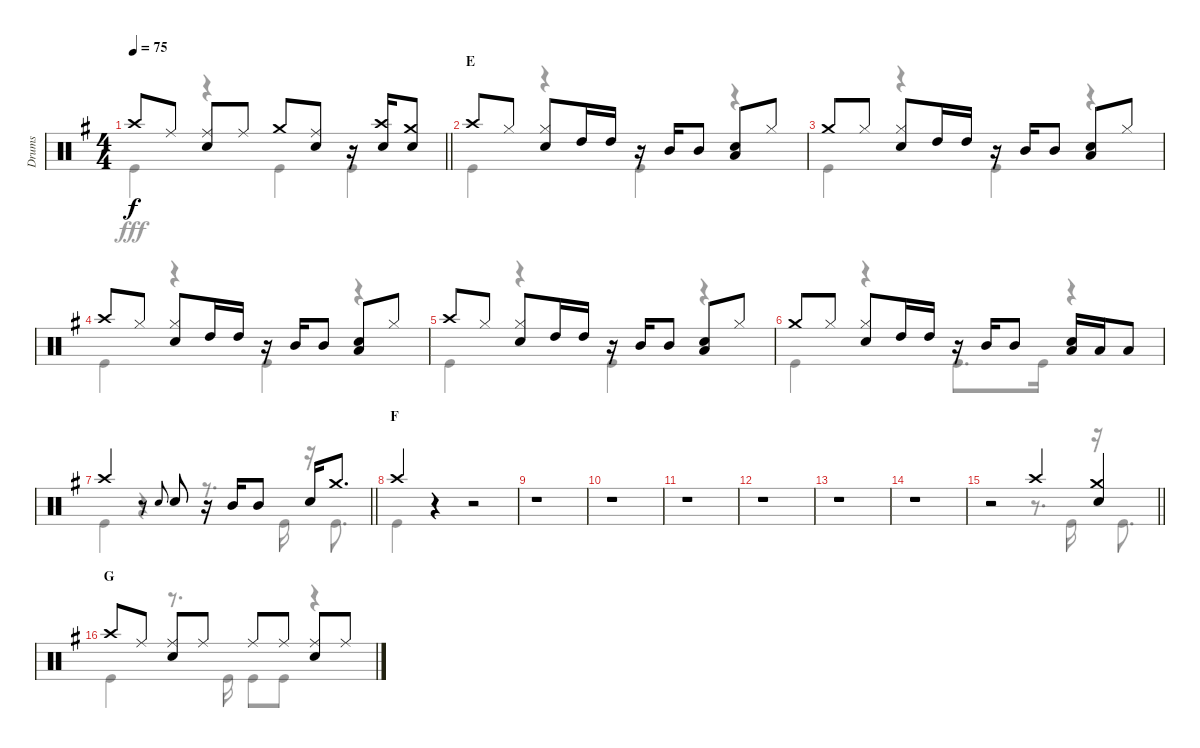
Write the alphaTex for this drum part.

\track ("Drums" "Drums") {instrument percussion}
\staff {score}
\articulation defaults
\voice
\ts (4 4)
\tempo 75
\clef neutral
\barLineRight lightlight
\ks g "Crash high (hit)".8{dy f} "Ride (middle)".8
("Ride (middle)" "Snare (hit) 2").8 "Ride (middle)".8 "Crash medium (hit)".8 ("Ride (middle)" "Snare (hit) 2").8 r.16 ("Crash high (hit)" "Snare (hit) 2").16 ("Crash medium (hit)" "Snare (hit) 2").8 |
\section ("" "E")
"Crash high (hit)".8 "Hi-Hat (closed)".8 ("Hi-Hat (closed)" "Snare (hit) 2").8 "High Tom (hit)".16 "High Tom (hit)".16 r.16 "Mid Tom (hit)".16 "Mid Tom (hit)".8 ("Snare (hit) 2" "Low Tom (hit)").8 "Hi-Hat (closed)".8 |
"Crash medium (hit)".8 "Hi-Hat (closed)".8 ("Hi-Hat (closed)" "Snare (hit) 2").8 "High Tom (hit)".16 "High Tom (hit)".16 r.16 "Mid Tom (hit)".16 "Mid Tom (hit)".8 ("Snare (hit) 2" "Low Tom (hit)").8 "Hi-Hat (closed)".8 |
"Crash high (hit)".8 "Hi-Hat (closed)".8 ("Hi-Hat (closed)" "Snare (hit) 2").8 "High Tom (hit)".16 "High Tom (hit)".16 r.16 "Mid Tom (hit)".16 "Mid Tom (hit)".8 ("Snare (hit) 2" "Low Tom (hit)").8 "Hi-Hat (closed)".8 |
"Crash high (hit)".8 "Hi-Hat (closed)".8 ("Hi-Hat (closed)" "Snare (hit) 2").8 "High Tom (hit)".16 "High Tom (hit)".16 r.16 "Mid Tom (hit)".16 "Mid Tom (hit)".8 ("Snare (hit) 2" "Low Tom (hit)").8 "Hi-Hat (closed)".8 |
"Crash medium (hit)".8 "Hi-Hat (closed)".8 ("Hi-Hat (closed)" "Snare (hit) 2").8 "High Tom (hit)".16 "High Tom (hit)".16 r.16 "Mid Tom (hit)".16 "Mid Tom (hit)".8 ("Snare (hit) 2" "Low Tom (hit)").16 "Low Tom (hit)".16 "Low Tom (hit)".8 |
\barLineRight lightlight "Crash high (hit)".4
r.8 "Snare (hit) 2".8{gr onbeat} "Snare (hit) 2".8 r.16 "Mid Tom (hit)".16 "Mid Tom (hit)".8 "Snare (hit) 2".16 "Crash medium (hit)".8{d} |
\section ("" "F")
"Crash high (hit)".4 r.4 r.2 |
r.1 |
r.1 |
r.1 |
r.1 |
r.1 |
r.1 |
\barLineRight lightlight
r.2 "Crash high (hit)".4 ("Crash medium (hit)" "Snare (hit) 2").4 |
\section ("" "G")
"Crash high (hit)".8 "Ride (middle)".8 ("Ride (middle)" "Snare (hit) 2").8 "Ride (middle)".8 "Ride (middle)".8 "Ride (middle)".8 ("Ride (middle)" "Snare (hit) 2").8 "Ride (middle)".8
\voice
\clef neutral
\ottava regular
\simile none
\barLineRight lightlight
\ks g "Kick (hit)".4{dy fff}
r.4 "Kick (hit)".4 "Kick (hit)".4 |
"Kick (hit)".4 r.4 "Kick (hit)".4 r.4 |
"Kick (hit)".4 r.4 "Kick (hit)".4 r.4 |
"Kick (hit)".4 r.4 "Kick (hit)".4 r.4 |
"Kick (hit)".4 r.4 "Kick (hit)".4 r.4 |
"Kick (hit)".4 r.4 "Kick (hit)".8{d} "Kick (hit)".16 r.4 |
\barLineRight lightlight "Kick (hit)".4
r.4 r.8{d} "Kick (hit)".16 r.16 "Kick (hit)".8{d} |
"Kick (hit)".4 r.4 r.2 |
r.1 |
r.1 |
r.1 |
r.1 |
r.1 |
r.1 |
\barLineRight lightlight
r.2 r.8{d} "Kick (hit)".16 r.16 "Kick (hit)".8{d} |
"Kick (hit)".4 r.8{d} "Kick (hit)".16 "Kick (hit)".8 "Kick (hit)".8 r.4
